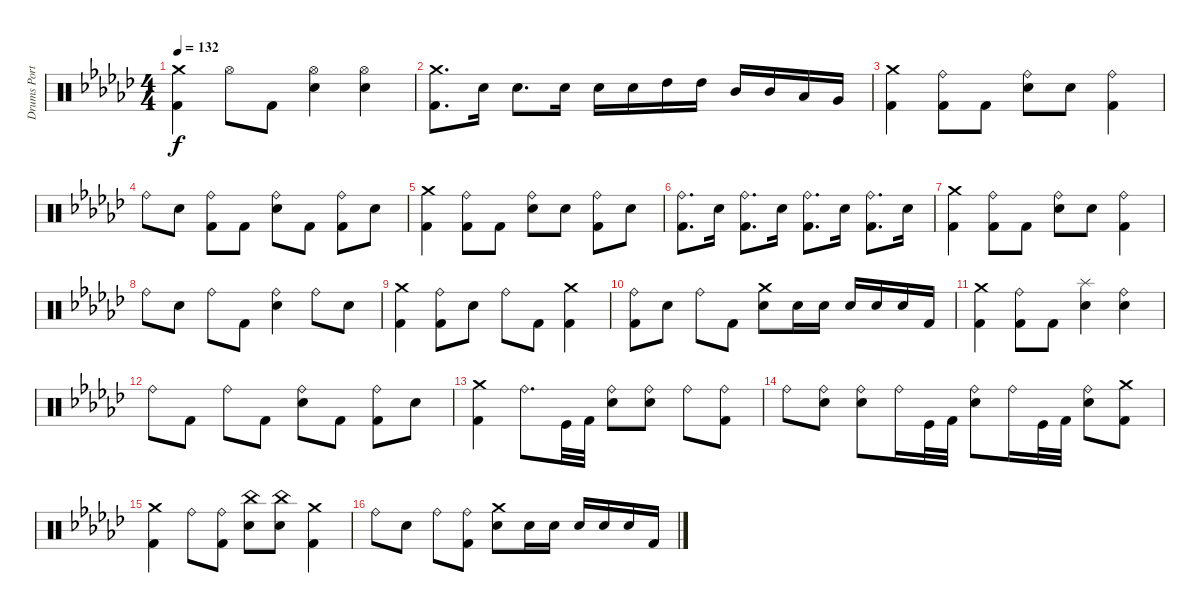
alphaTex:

\track ("Drums Portnoy" "Drums Port") {instrument percussion}
\staff {score}
\articulation defaults
\ts (4 4)
\tempo 132
\clef neutral
\ks gb
("Crash medium (hit)" "Kick (hit) 2").4{dy f} "Hi-Hat (open)".8 "Kick (hit) 2".8 ("Hi-Hat (open)" "Snare (hit) 2").4 ("Hi-Hat (open)" "Snare (hit) 2").4 |
("Crash medium (hit)" "Kick (hit) 2").8{d} "Snare (hit) 2".16 "Snare (hit) 2".8{d} "Snare (hit) 2".16 "Snare (hit) 2".16 "Snare (hit) 2".16 "High Tom (hit)".16 "High Tom (hit)".16 "Mid Tom (hit)".16 "Mid Tom (hit)".16 "Low Tom (hit)".16 "Very Low Tom (hit)".16 |
("Crash medium (hit)" "Kick (hit) 2").4 ("Ride (bell)" "Kick (hit) 2").8 "Kick (hit) 2".8 ("Ride (bell)" "Snare (hit) 2").8 "Snare (hit) 2".8 ("Ride (bell)" "Kick (hit) 2").4 |
"Ride (bell)".8 "Snare (hit) 2".8 ("Ride (bell)" "Kick (hit) 2").8 "Kick (hit) 2".8 ("Ride (bell)" "Snare (hit) 2").8 "Kick (hit) 2".8 ("Ride (bell)" "Kick (hit) 2").8 "Snare (hit) 2".8 |
("Crash medium (hit)" "Kick (hit) 2").4 ("Ride (bell)" "Kick (hit) 2").8 "Kick (hit) 2".8 ("Ride (bell)" "Snare (hit) 2").8 "Snare (hit) 2".8 ("Ride (bell)" "Kick (hit) 2").8 "Snare (hit) 2".8 |
("Ride (bell)" "Kick (hit) 2").8{d} "Snare (hit) 2".16 ("Ride (bell)" "Kick (hit) 2").8{d} "Snare (hit) 2".16 ("Ride (bell)" "Kick (hit) 2").8{d} "Snare (hit) 2".16 ("Ride (bell)" "Kick (hit) 2").8{d} "Snare (hit) 2".16 |
("Crash medium (hit)" "Kick (hit) 2").4 ("Ride (bell)" "Kick (hit) 2").8 "Kick (hit) 2".8 ("Ride (bell)" "Snare (hit) 2").8 "Snare (hit) 2".8 ("Ride (bell)" "Kick (hit) 2").4 |
"Ride (bell)".8 "Snare (hit) 2".8 "Ride (bell)".8 "Kick (hit) 2".8 ("Ride (bell)" "Snare (hit) 2").4 "Ride (bell)".8 "Snare (hit) 2".8 |
("Crash medium (hit)" "Kick (hit) 2").4 ("Ride (bell)" "Kick (hit) 2").8 "Snare (hit) 2".8 "Ride (bell)".8 "Kick (hit) 2".8 ("Crash medium (hit)" "Kick (hit) 2").4 |
("Ride (bell)" "Kick (hit) 2").8 "Snare (hit) 2".8 "Ride (bell)".8 "Kick (hit) 2".8 ("Crash medium (hit)" "Snare (hit) 2").8 "Snare (hit) 2".16 "Snare (hit) 2".16 "Snare (hit) 2".16 "Snare (hit) 2".16 "Snare (hit) 2".16 "Kick (hit) 2".16 |
("Crash medium (hit)" "Kick (hit) 2").4 ("Ride (bell)" "Kick (hit) 2").8 "Kick (hit) 2".8 ("Splash (hit)" "Snare (hit) 2").4 ("Ride (bell)" "Snare (hit) 2").4 |
"Ride (bell)".8 "Kick (hit) 2".8 "Ride (bell)".8 "Kick (hit) 2".8 ("Ride (bell)" "Snare (hit) 2").8 "Kick (hit) 2".8 ("Ride (bell)" "Kick (hit) 2").8 "Snare (hit) 2".8 |
("Crash medium (hit)" "Kick (hit) 2").4 "Ride (bell)".8{d} "Kick (hit)".32 "Kick (hit) 2".32 ("Ride (bell)" "Snare (hit) 2").8 ("Ride (bell)" "Snare (hit) 2").8 "Ride (bell)".8 ("Ride (bell)" "Kick (hit) 2").8 |
"Ride (bell)".8 ("Ride (bell)" "Snare (hit) 2").8 ("Ride (bell)" "Snare (hit) 2").8 "Ride (bell)".16 "Kick (hit)".32 "Kick (hit) 2".32 ("Ride (bell)" "Snare (hit) 2").8 "Ride (bell)".16 "Kick (hit)".32 "Kick (hit) 2".32 ("Ride (bell)" "Snare (hit) 2").8 ("Crash medium (hit)" "Kick (hit) 2").8 |
("Crash medium (hit)" "Kick (hit) 2").4 "Ride (bell)".8 ("Ride (bell)" "Kick (hit) 2").8 ("China (hit)" "Snare (hit) 2").8 ("China (hit)" "Snare (hit) 2").8 ("Crash medium (hit)" "Kick (hit) 2").4 |
"Ride (bell)".8 "Snare (hit) 2".8 "Ride (bell)".8 ("Ride (bell)" "Kick (hit) 2").8 ("Crash medium (hit)" "Snare (hit) 2").8 "Snare (hit) 2".16 "Snare (hit) 2".16 "Snare (hit) 2".16 "Snare (hit) 2".16 "Snare (hit) 2".16 "Kick (hit) 2".16
